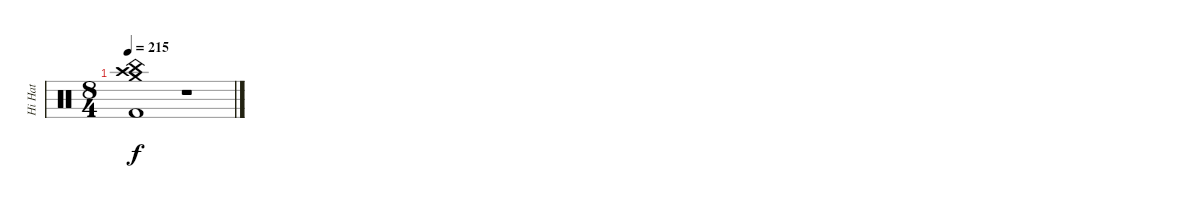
\track ("Hi Hat" "Hi Hat") {instrument percussion}
\staff {score}
\articulation defaults
\ts (8 4)
\tempo 215
\clef neutral
\ks c
("Kick (hit) 2" "China (hit)" "Crash high (hit)" "Crash medium (hit)").1{dy f} r.1
